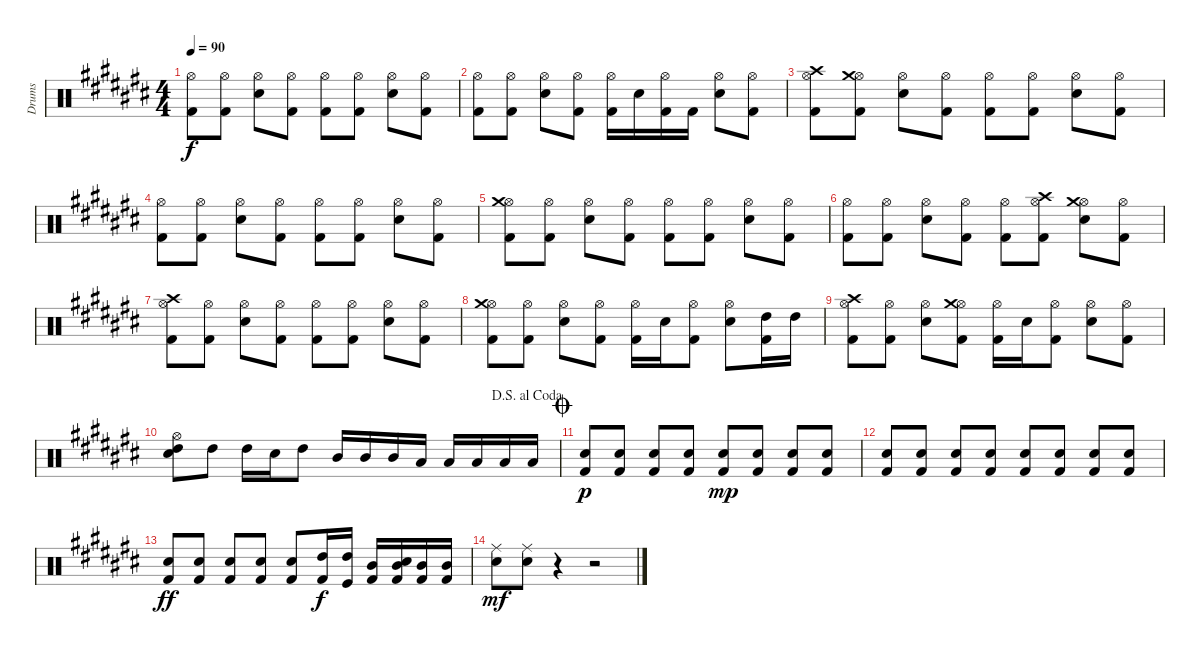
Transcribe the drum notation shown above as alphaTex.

\track ("Drums" "Drums") {instrument percussion}
\staff {score}
\articulation defaults
\ts (4 4)
\tempo 90
\clef neutral
\ks c#
("Kick (hit) 2" "Hi-Hat (open)").8{dy f} ("Kick (hit) 2" "Hi-Hat (open)").8 ("Electric Snare (hit)" "Hi-Hat (open)").8 ("Kick (hit) 2" "Hi-Hat (open)").8 ("Kick (hit) 2" "Hi-Hat (open)").8 ("Kick (hit) 2" "Hi-Hat (open)").8 ("Electric Snare (hit)" "Hi-Hat (open)").8 ("Kick (hit) 2" "Hi-Hat (open)").8 |
("Kick (hit) 2" "Hi-Hat (open)").8 ("Kick (hit) 2" "Hi-Hat (open)").8 ("Electric Snare (hit)" "Hi-Hat (open)").8 ("Kick (hit) 2" "Hi-Hat (open)").8 ("Kick (hit) 2" "Hi-Hat (open)").16 "Snare (hit) 2".16 ("Kick (hit) 2" "Hi-Hat (open)").16 "Kick (hit) 2".16 ("Electric Snare (hit)" "Hi-Hat (open)").8 ("Kick (hit) 2" "Hi-Hat (open)").8 |
("Kick (hit) 2" "Hi-Hat (open)" "Crash high (hit)").8 ("Kick (hit) 2" "Hi-Hat (open)" "Crash medium (hit)").8 ("Electric Snare (hit)" "Hi-Hat (open)").8 ("Kick (hit) 2" "Hi-Hat (open)").8 ("Kick (hit) 2" "Hi-Hat (open)").8 ("Kick (hit) 2" "Hi-Hat (open)").8 ("Electric Snare (hit)" "Hi-Hat (open)").8 ("Kick (hit) 2" "Hi-Hat (open)").8 |
("Kick (hit) 2" "Hi-Hat (open)").8 ("Kick (hit) 2" "Hi-Hat (open)").8 ("Electric Snare (hit)" "Hi-Hat (open)").8 ("Kick (hit) 2" "Hi-Hat (open)").8 ("Kick (hit) 2" "Hi-Hat (open)").8 ("Kick (hit) 2" "Hi-Hat (open)").8 ("Electric Snare (hit)" "Hi-Hat (open)").8 ("Kick (hit) 2" "Hi-Hat (open)").8 |
("Kick (hit) 2" "Hi-Hat (open)" "Crash medium (hit)").8 ("Kick (hit) 2" "Hi-Hat (open)").8 ("Electric Snare (hit)" "Hi-Hat (open)").8 ("Kick (hit) 2" "Hi-Hat (open)").8 ("Kick (hit) 2" "Hi-Hat (open)").8 ("Kick (hit) 2" "Hi-Hat (open)").8 ("Electric Snare (hit)" "Hi-Hat (open)").8 ("Kick (hit) 2" "Hi-Hat (open)").8 |
("Kick (hit) 2" "Hi-Hat (open)").8 ("Kick (hit) 2" "Hi-Hat (open)").8 ("Electric Snare (hit)" "Hi-Hat (open)").8 ("Kick (hit) 2" "Hi-Hat (open)").8 ("Kick (hit) 2" "Hi-Hat (open)").8 ("Kick (hit) 2" "Hi-Hat (open)" "Crash high (hit)").8 ("Electric Snare (hit)" "Hi-Hat (open)" "Crash medium (hit)").8 ("Kick (hit) 2" "Hi-Hat (open)").8 |
("Kick (hit) 2" "Hi-Hat (open)" "Crash high (hit)").8 ("Kick (hit) 2" "Hi-Hat (open)").8 ("Electric Snare (hit)" "Hi-Hat (open)").8 ("Kick (hit) 2" "Hi-Hat (open)").8 ("Kick (hit) 2" "Hi-Hat (open)").8 ("Kick (hit) 2" "Hi-Hat (open)").8 ("Electric Snare (hit)" "Hi-Hat (open)").8 ("Kick (hit) 2" "Hi-Hat (open)").8 |
("Kick (hit) 2" "Hi-Hat (open)" "Crash medium (hit)").8 ("Kick (hit) 2" "Hi-Hat (open)").8 ("Electric Snare (hit)" "Hi-Hat (open)").8 ("Kick (hit) 2" "Hi-Hat (open)").8 ("Kick (hit) 2" "Hi-Hat (open)").16 "Electric Snare (hit)".16 ("Kick (hit) 2" "Hi-Hat (open)").8 ("Electric Snare (hit)" "Hi-Hat (open)").8 ("Kick (hit) 2" "High Tom (hit)").16 "High Tom (hit)".16 |
("Kick (hit) 2" "Hi-Hat (open)" "Crash high (hit)").8 ("Kick (hit) 2" "Hi-Hat (open)").8 ("Electric Snare (hit)" "Hi-Hat (open)").8 ("Kick (hit) 2" "Hi-Hat (open)" "Crash medium (hit)").8 ("Kick (hit) 2" "Hi-Hat (open)").16 "Electric Snare (hit)".16 ("Kick (hit) 2" "Hi-Hat (open)").8 ("Electric Snare (hit)" "Hi-Hat (open)").8 ("Kick (hit) 2" "Hi-Hat (open)").8 |
\jump dalsegnoalcoda
("Electric Snare (hit)" "Hi-Hat (open)" "High Tom (hit)").8 "High Tom (hit)".8 "High Tom (hit)".16 "Snare (hit) 2".16 "High Tom (hit)".8 "Mid Tom (hit)".16 "Mid Tom (hit)".16 "Mid Tom (hit)".16 "Low Tom (hit)".16 "Low Tom (hit)".16 "Low Tom (hit)".16 "Low Tom (hit)".16 "Low Tom (hit)".16 |
\jump coda
("Kick (hit) 2" "Snare (hit) 2").8{dy p} ("Kick (hit) 2" "Snare (hit) 2").8 ("Kick (hit) 2" "Snare (hit) 2").8 ("Kick (hit) 2" "Snare (hit) 2").8 ("Kick (hit) 2" "Snare (hit) 2").8{dy mp} ("Kick (hit) 2" "Snare (hit) 2").8 ("Kick (hit) 2" "Snare (hit) 2").8 ("Kick (hit) 2" "Snare (hit) 2").8 |
("Kick (hit) 2" "Snare (hit) 2").8 ("Kick (hit) 2" "Snare (hit) 2").8 ("Kick (hit) 2" "Snare (hit) 2").8 ("Kick (hit) 2" "Snare (hit) 2").8 ("Kick (hit) 2" "Snare (hit) 2").8 ("Kick (hit) 2" "Snare (hit) 2").8 ("Kick (hit) 2" "Snare (hit) 2").8 ("Kick (hit) 2" "Snare (hit) 2").8 |
("Kick (hit) 2" "Snare (hit) 2").8{dy ff} ("Kick (hit) 2" "Snare (hit) 2").8 ("Kick (hit) 2" "Snare (hit) 2").8 ("Kick (hit) 2" "Snare (hit) 2").8 ("Kick (hit) 2" "Snare (hit) 2").8 ("Kick (hit) 2" "High Tom (hit)").16{dy f} ("Kick (hit)" "High Tom (hit)").16 ("Kick (hit) 2" "Mid Tom (hit)").16 ("Kick (hit) 2" "Snare (hit) 2" "Mid Tom (hit)").16 ("Kick (hit) 2" "Mid Tom (hit)").16 ("Kick (hit) 2" "Mid Tom (hit)").16 |
("Ride (middle)" "Snare (hit) 2").8{dy mf} ("Ride (middle)" "Snare (hit) 2").8 r.4 r.2
